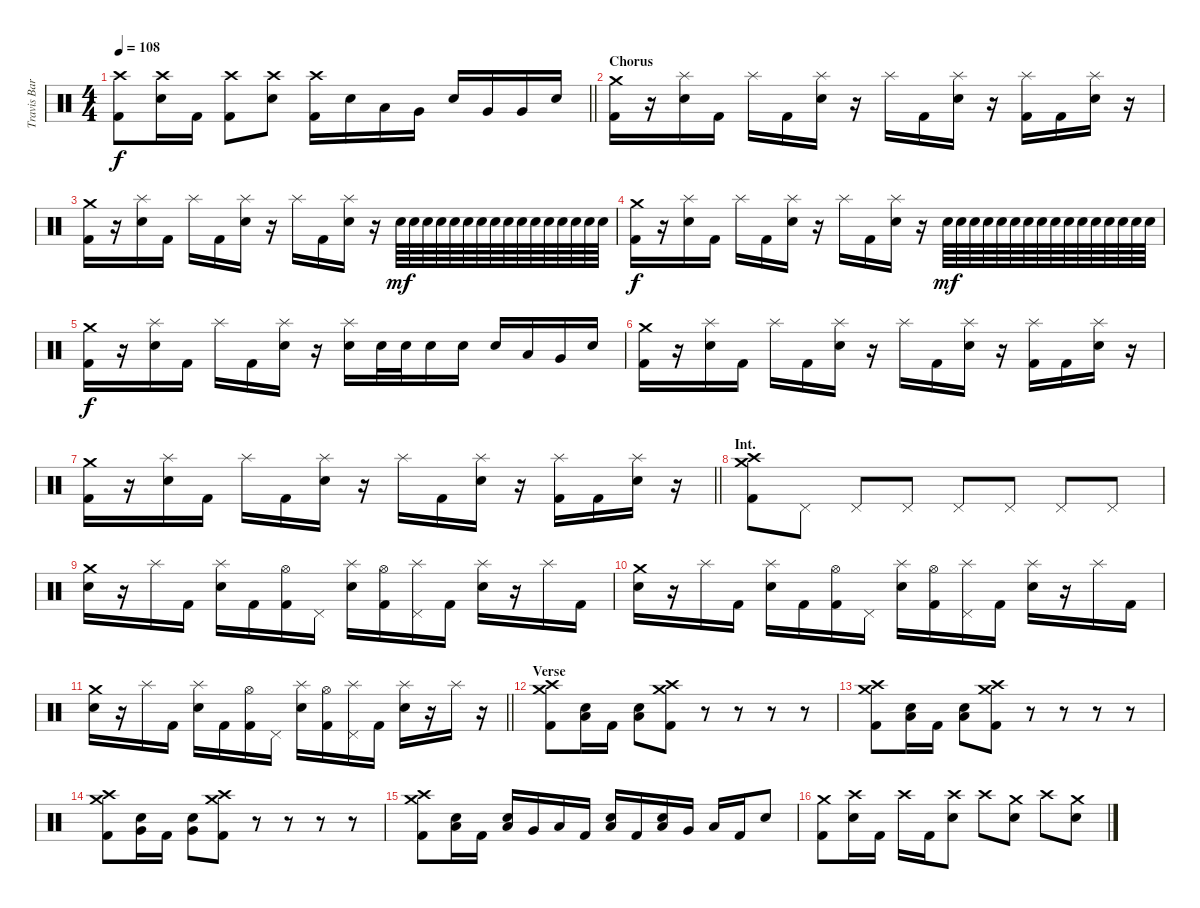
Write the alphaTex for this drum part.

\track ("Travis Barker" "Travis Bar") {instrument percussion}
\staff {score}
\articulation defaults
\ts (4 4)
\tempo 108
\clef neutral
\barLineRight lightlight
\ks c
("Crash high (hit)" "Kick (hit) 2").8{dy f} ("Crash high (hit)" "Electric Snare (hit)").16 "Kick (hit) 2".16 ("Crash high (hit)" "Kick (hit) 2").8 ("Crash high (hit)" "Electric Snare (hit)").8 ("Crash high (hit)" "Kick (hit) 2").16 "Electric Snare (hit)".16 "Low Tom (hit)".16 "Very Low Tom (hit)".16 "Electric Snare (hit)".16 "Very Low Tom (hit)".16 "Very Low Tom (hit)".16 "Electric Snare (hit)".16 |
\section ("" "Chorus")
("Crash medium (hit)" "Kick (hit) 2").16 r.16 ("Splash (hit)" "Electric Snare (hit)").16 "Kick (hit) 2".16 "Splash (hit)".16 "Kick (hit) 2".16 ("Splash (hit)" "Electric Snare (hit)").16 r.16 "Splash (hit)".16 "Kick (hit) 2".16 ("Splash (hit)" "Electric Snare (hit)").16 r.16 ("Splash (hit)" "Kick (hit) 2").16 "Kick (hit) 2".16 ("Splash (hit)" "Electric Snare (hit)").16 r.16 |
("Crash medium (hit)" "Kick (hit) 2").16 r.16 ("Splash (hit)" "Electric Snare (hit)").16 "Kick (hit) 2".16 "Splash (hit)".16 "Kick (hit) 2".16 ("Splash (hit)" "Electric Snare (hit)").16 r.16 "Splash (hit)".16 "Kick (hit) 2".16 ("Splash (hit)" "Electric Snare (hit)").16 r.16 "Electric Snare (hit)".64{dy mf} "Electric Snare (hit)".64 "Electric Snare (hit)".64 "Electric Snare (hit)".64 "Electric Snare (hit)".64 "Electric Snare (hit)".64 "Electric Snare (hit)".64 "Electric Snare (hit)".64 "Electric Snare (hit)".64 "Electric Snare (hit)".64 "Electric Snare (hit)".64 "Electric Snare (hit)".64 "Electric Snare (hit)".64 "Electric Snare (hit)".64 "Electric Snare (hit)".64 "Electric Snare (hit)".64 |
("Crash medium (hit)" "Kick (hit) 2").16{dy f} r.16 ("Splash (hit)" "Electric Snare (hit)").16 "Kick (hit) 2".16 "Splash (hit)".16 "Kick (hit) 2".16 ("Splash (hit)" "Electric Snare (hit)").16 r.16 "Splash (hit)".16 "Kick (hit) 2".16 ("Splash (hit)" "Electric Snare (hit)").16 r.16 "Electric Snare (hit)".64{dy mf} "Electric Snare (hit)".64 "Electric Snare (hit)".64 "Electric Snare (hit)".64 "Electric Snare (hit)".64 "Electric Snare (hit)".64 "Electric Snare (hit)".64 "Electric Snare (hit)".64 "Electric Snare (hit)".64 "Electric Snare (hit)".64 "Electric Snare (hit)".64 "Electric Snare (hit)".64 "Electric Snare (hit)".64 "Electric Snare (hit)".64 "Electric Snare (hit)".64 "Electric Snare (hit)".64 |
("Crash medium (hit)" "Kick (hit) 2").16{dy f} r.16 ("Splash (hit)" "Electric Snare (hit)").16 "Kick (hit) 2".16 "Splash (hit)".16 "Kick (hit) 2".16 ("Splash (hit)" "Electric Snare (hit)").16 r.16 ("Splash (hit)" "Electric Snare (hit)").16 "Electric Snare (hit)".32 "Electric Snare (hit)".32 "Electric Snare (hit)".16 "Electric Snare (hit)".16 "Electric Snare (hit)".16 "Low Tom (hit)".16 "Very Low Tom (hit)".16 "Electric Snare (hit)".16 |
("Crash medium (hit)" "Kick (hit) 2").16 r.16 ("Splash (hit)" "Electric Snare (hit)").16 "Kick (hit) 2".16 "Splash (hit)".16 "Kick (hit) 2".16 ("Splash (hit)" "Electric Snare (hit)").16 r.16 "Splash (hit)".16 "Kick (hit) 2".16 ("Splash (hit)" "Electric Snare (hit)").16 r.16 ("Splash (hit)" "Kick (hit) 2").16 "Kick (hit) 2".16 ("Splash (hit)" "Electric Snare (hit)").16 r.16 |
\barLineRight lightlight
("Crash medium (hit)" "Kick (hit) 2").16 r.16 ("Splash (hit)" "Electric Snare (hit)").16 "Kick (hit) 2".16 "Splash (hit)".16 "Kick (hit) 2".16 ("Splash (hit)" "Electric Snare (hit)").16 r.16 "Splash (hit)".16 "Kick (hit) 2".16 ("Splash (hit)" "Electric Snare (hit)").16 r.16 ("Splash (hit)" "Kick (hit) 2").16 "Kick (hit) 2".16 ("Splash (hit)" "Electric Snare (hit)").16 r.16 |
\section ("" "Int.")
("Crash medium (hit)" "Crash high (hit)" "Kick (hit) 2").8 "Pedal Hi-Hat (hit)".8 "Pedal Hi-Hat (hit)".8 "Pedal Hi-Hat (hit)".8 "Pedal Hi-Hat (hit)".8 "Pedal Hi-Hat (hit)".8 "Pedal Hi-Hat (hit)".8 "Pedal Hi-Hat (hit)".8 |
("Crash medium (hit)" "Electric Snare (hit)").16 r.16 "Splash (hit)".16 "Kick (hit) 2".16 ("Splash (hit)" "Electric Snare (hit)").16 "Kick (hit) 2".16 ("Hi-Hat (open)" "Kick (hit) 2").16 "Pedal Hi-Hat (hit)".16 ("Splash (hit)" "Electric Snare (hit)").16 ("Hi-Hat (open)" "Kick (hit) 2").16 ("Pedal Hi-Hat (hit)" "Splash (hit)").16 "Kick (hit) 2".16 ("Splash (hit)" "Electric Snare (hit)").16 r.16 "Splash (hit)".16 "Kick (hit) 2".16 |
("Crash medium (hit)" "Electric Snare (hit)").16 r.16 "Splash (hit)".16 "Kick (hit) 2".16 ("Splash (hit)" "Electric Snare (hit)").16 "Kick (hit) 2".16 ("Hi-Hat (open)" "Kick (hit) 2").16 "Pedal Hi-Hat (hit)".16 ("Splash (hit)" "Electric Snare (hit)").16 ("Hi-Hat (open)" "Kick (hit) 2").16 ("Pedal Hi-Hat (hit)" "Splash (hit)").16 "Kick (hit) 2".16 ("Splash (hit)" "Electric Snare (hit)").16 r.16 "Splash (hit)".16 "Kick (hit) 2".16 |
\barLineRight lightlight
("Crash medium (hit)" "Electric Snare (hit)").16 r.16 "Splash (hit)".16 "Kick (hit) 2".16 ("Splash (hit)" "Electric Snare (hit)").16 "Kick (hit) 2".16 ("Hi-Hat (open)" "Kick (hit) 2").16 "Pedal Hi-Hat (hit)".16 ("Splash (hit)" "Electric Snare (hit)").16 ("Hi-Hat (open)" "Kick (hit) 2").16 ("Pedal Hi-Hat (hit)" "Splash (hit)").16 "Kick (hit) 2".16 ("Splash (hit)" "Electric Snare (hit)").16 r.16 "Splash (hit)".16 r.16 |
\section ("" "Verse")
("Crash medium (hit)" "Crash high (hit)" "Kick (hit) 2").8 ("Electric Snare (hit)" "Low Tom (hit)").16 "Kick (hit) 2".16 ("Electric Snare (hit)" "Low Tom (hit)").8 ("Crash medium (hit)" "Crash high (hit)" "Kick (hit) 2").8 r.8 r.8 r.8 r.8 |
("Crash medium (hit)" "Crash high (hit)" "Kick (hit) 2").8 ("Electric Snare (hit)" "Low Tom (hit)").16 "Kick (hit) 2".16 ("Electric Snare (hit)" "Low Tom (hit)").8 ("Crash medium (hit)" "Crash high (hit)" "Kick (hit) 2").8 r.8 r.8 r.8 r.8 |
("Crash medium (hit)" "Crash high (hit)" "Kick (hit) 2").8 ("Electric Snare (hit)" "Very Low Tom (hit)").16 "Kick (hit) 2".16 ("Electric Snare (hit)" "Very Low Tom (hit)").8 ("Crash medium (hit)" "Crash high (hit)" "Kick (hit) 2").8 r.8 r.8 r.8 r.8 |
("Crash medium (hit)" "Crash high (hit)" "Kick (hit) 2").8 ("Electric Snare (hit)" "Low Tom (hit)").16 "Kick (hit) 2".16 ("Electric Snare (hit)" "Low Tom (hit)").16 "Very Low Tom (hit)".16 "Low Floor Tom (hit)".16 "Kick (hit) 2".16 ("Electric Snare (hit)" "Low Tom (hit)").16 "Kick (hit) 2".16 ("Electric Snare (hit)" "Low Tom (hit)").16 "Very Low Tom (hit)".16 "Low Floor Tom (hit)".16 "Kick (hit) 2".16 "Electric Snare (hit)".8 |
("Crash medium (hit)" "Kick (hit) 2").8 ("Crash high (hit)" "Electric Snare (hit)").16 "Kick (hit) 2".16 "Crash high (hit)".16 "Kick (hit) 2".16 ("Crash high (hit)" "Electric Snare (hit)").8 "Crash high (hit)".8 ("Crash medium (hit)" "Electric Snare (hit)").8 "Crash high (hit)".8 ("Crash medium (hit)" "Electric Snare (hit)").8
